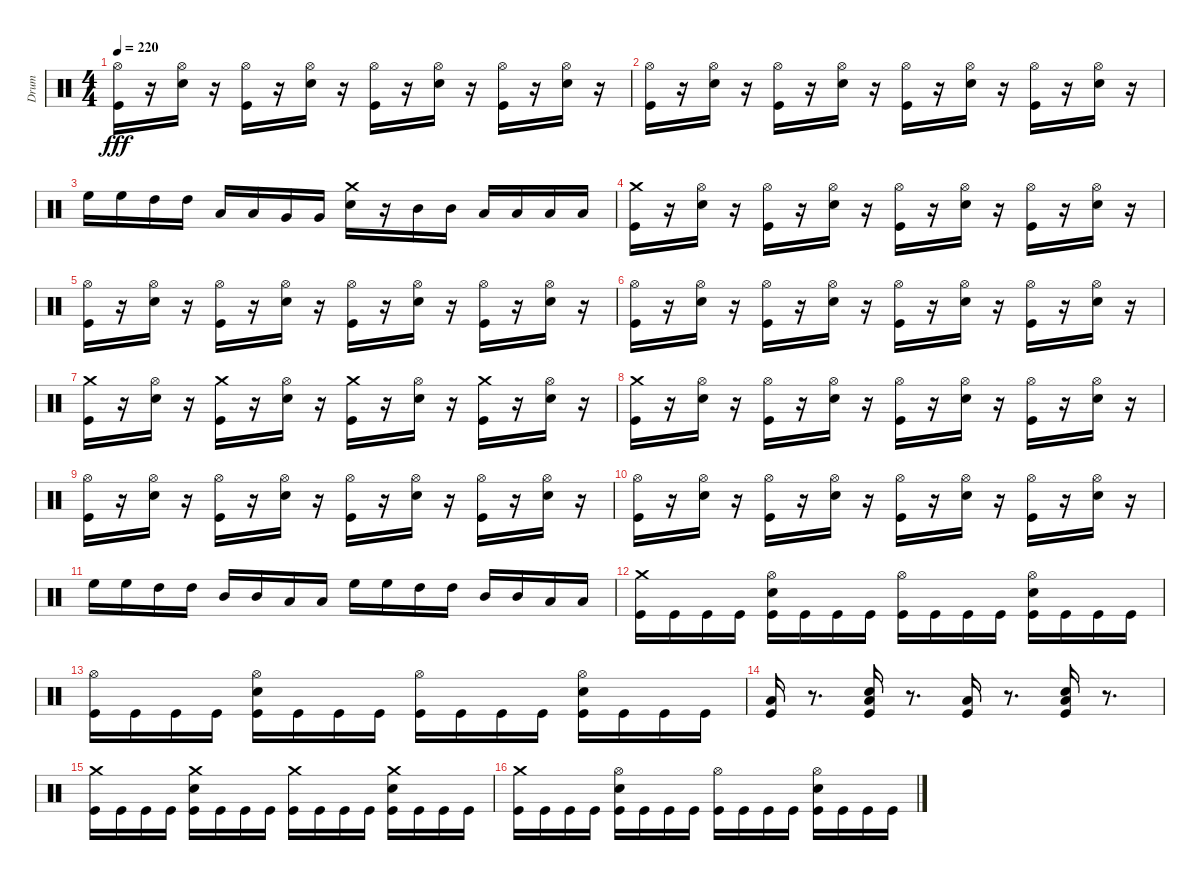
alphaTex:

\track ("Drum" "Drum") {instrument percussion}
\staff {score}
\articulation defaults
\ts (4 4)
\tempo 220
\clef neutral
\ks c
("Hi-Hat (open)" "Kick (hit)").16{dy fff} r.16 ("Hi-Hat (open)" "Snare (hit) 2").16 r.16 ("Kick (hit)" "Hi-Hat (open)").16 r.16 ("Snare (hit) 2" "Hi-Hat (open)").16 r.16 ("Hi-Hat (open)" "Kick (hit)").16 r.16 ("Hi-Hat (open)" "Snare (hit) 2").16 r.16 ("Kick (hit)" "Hi-Hat (open)").16 r.16 ("Snare (hit) 2" "Hi-Hat (open)").16 r.16 |
("Hi-Hat (open)" "Kick (hit)").16 r.16 ("Snare (hit) 2" "Hi-Hat (open)").16 r.16 ("Hi-Hat (open)" "Kick (hit)").16 r.16 ("Hi-Hat (open)" "Snare (hit) 2").16 r.16 ("Hi-Hat (open)" "Kick (hit)").16 r.16 ("Snare (hit) 2" "Hi-Hat (open)").16 r.16 ("Hi-Hat (open)" "Kick (hit)").16 r.16 ("Hi-Hat (open)" "Snare (hit) 2").16 r.16 |
"High Floor Tom (hit)".16 "High Floor Tom (hit)".16 "High Tom (hit)".16 "High Tom (hit)".16 "Low Tom (hit)".16 "Low Tom (hit)".16 "Very Low Tom (hit)".16 "Very Low Tom (hit)".16 ("Crash medium (hit)" "Snare (hit) 2").16 r.16 "Mid Tom (hit)".16 "Mid Tom (hit)".16 "Low Tom (hit)".16 "Low Tom (hit)".16 "Low Tom (hit)".16 "Low Floor Tom (hit)".16 |
("Crash medium (hit)" "Kick (hit)").16 r.16 ("Hi-Hat (open)" "Snare (hit) 2").16 r.16 ("Kick (hit)" "Hi-Hat (open)").16 r.16 ("Snare (hit) 2" "Hi-Hat (open)").16 r.16 ("Hi-Hat (open)" "Kick (hit)").16 r.16 ("Hi-Hat (open)" "Snare (hit) 2").16 r.16 ("Kick (hit)" "Hi-Hat (open)").16 r.16 ("Hi-Hat (open)" "Snare (hit) 2").16 r.16 |
("Kick (hit)" "Hi-Hat (open)").16 r.16 ("Snare (hit) 2" "Hi-Hat (open)").16 r.16 ("Hi-Hat (open)" "Kick (hit)").16 r.16 ("Hi-Hat (open)" "Snare (hit) 2").16 r.16 ("Kick (hit)" "Hi-Hat (open)").16 r.16 ("Snare (hit) 2" "Hi-Hat (open)").16 r.16 ("Kick (hit)" "Hi-Hat (open)").16 r.16 ("Hi-Hat (open)" "Snare (hit) 2").16 r.16 |
("Hi-Hat (open)" "Kick (hit)").16 r.16 ("Snare (hit) 2" "Hi-Hat (open)").16 r.16 ("Kick (hit)" "Hi-Hat (open)").16 r.16 ("Hi-Hat (open)" "Snare (hit) 2").16 r.16 ("Kick (hit)" "Hi-Hat (open)").16 r.16 ("Hi-Hat (open)" "Snare (hit) 2").16 r.16 ("Hi-Hat (open)" "Kick (hit)").16 r.16 ("Snare (hit) 2" "Hi-Hat (open)").16 r.16 |
("Kick (hit)" "Crash medium (hit)").16 r.16 ("Snare (hit) 2" "Hi-Hat (open)").16 r.16 ("Crash medium (hit)" "Kick (hit)").16 r.16 ("Snare (hit) 2" "Hi-Hat (open)").16 r.16 ("Crash medium (hit)" "Kick (hit)").16 r.16 ("Hi-Hat (open)" "Snare (hit) 2").16 r.16 ("Kick (hit)" "Crash medium (hit)").16 r.16 ("Hi-Hat (open)" "Snare (hit) 2").16 r.16 |
("Crash medium (hit)" "Kick (hit)").16 r.16 ("Hi-Hat (open)" "Snare (hit) 2").16 r.16 ("Kick (hit)" "Hi-Hat (open)").16 r.16 ("Snare (hit) 2" "Hi-Hat (open)").16 r.16 ("Kick (hit)" "Hi-Hat (open)").16 r.16 ("Snare (hit) 2" "Hi-Hat (open)").16 r.16 ("Kick (hit)" "Hi-Hat (open)").16 r.16 ("Hi-Hat (open)" "Snare (hit) 2").16 r.16 |
("Kick (hit)" "Hi-Hat (open)").16 r.16 ("Hi-Hat (open)" "Snare (hit) 2").16 r.16 ("Kick (hit)" "Hi-Hat (open)").16 r.16 ("Snare (hit) 2" "Hi-Hat (open)").16 r.16 ("Hi-Hat (open)" "Kick (hit)").16 r.16 ("Snare (hit) 2" "Hi-Hat (open)").16 r.16 ("Kick (hit)" "Hi-Hat (open)").16 r.16 ("Snare (hit) 2" "Hi-Hat (open)").16 r.16 |
("Hi-Hat (open)" "Kick (hit)").16 r.16 ("Snare (hit) 2" "Hi-Hat (open)").16 r.16 ("Hi-Hat (open)" "Kick (hit)").16 r.16 ("Hi-Hat (open)" "Snare (hit) 2").16 r.16 ("Kick (hit)" "Hi-Hat (open)").16 r.16 ("Hi-Hat (open)" "Snare (hit) 2").16 r.16 ("Kick (hit)" "Hi-Hat (open)").16 r.16 ("Snare (hit) 2" "Hi-Hat (open)").16 r.16 |
"High Floor Tom (hit)".16 "High Floor Tom (hit)".16 "High Tom (hit)".16 "High Tom (hit)".16 "Mid Tom (hit)".16 "Mid Tom (hit)".16 "Low Tom (hit)".16 "Low Tom (hit)".16 "High Floor Tom (hit)".16 "High Floor Tom (hit)".16 "High Tom (hit)".16 "High Tom (hit)".16 "Mid Tom (hit)".16 "Mid Tom (hit)".16 "Low Tom (hit)".16 "Low Tom (hit)".16 |
("Kick (hit)" "Crash medium (hit)").16 "Kick (hit)".16 "Kick (hit)".16 "Kick (hit)".16 ("Kick (hit)" "Snare (hit) 2" "Hi-Hat (open)").16 "Kick (hit)".16 "Kick (hit)".16 "Kick (hit)".16 ("Kick (hit)" "Hi-Hat (open)").16 "Kick (hit)".16 "Kick (hit)".16 "Kick (hit)".16 ("Hi-Hat (open)" "Snare (hit) 2" "Kick (hit)").16 "Kick (hit)".16 "Kick (hit)".16 "Kick (hit)".16 |
("Hi-Hat (open)" "Kick (hit)").16 "Kick (hit)".16 "Kick (hit)".16 "Kick (hit)".16 ("Kick (hit)" "Snare (hit) 2" "Hi-Hat (open)").16 "Kick (hit)".16 "Kick (hit)".16 "Kick (hit)".16 ("Kick (hit)" "Hi-Hat (open)").16 "Kick (hit)".16 "Kick (hit)".16 "Kick (hit)".16 ("Kick (hit)" "Hi-Hat (open)" "Snare (hit) 2").16 "Kick (hit)".16 "Kick (hit)".16 "Kick (hit)".16 |
("Kick (hit)" "Low Tom (hit)").16 r.8{d} ("Kick (hit)" "Snare (hit) 2" "Low Tom (hit)").16 r.8{d} ("Low Tom (hit)" "Kick (hit)").16 r.8{d} ("Snare (hit) 2" "Kick (hit)" "Low Tom (hit)").16 r.8{d} |
("Crash medium (hit)" "Kick (hit)").16 "Kick (hit)".16 "Kick (hit)".16 "Kick (hit)".16 ("Crash medium (hit)" "Snare (hit) 2" "Kick (hit)").16 "Kick (hit)".16 "Kick (hit)".16 "Kick (hit)".16 ("Kick (hit)" "Crash medium (hit)").16 "Kick (hit)".16 "Kick (hit)".16 "Kick (hit)".16 ("Kick (hit)" "Crash medium (hit)" "Snare (hit) 2").16 "Kick (hit)".16 "Kick (hit)".16 "Kick (hit)".16 |
("Kick (hit)" "Crash medium (hit)").16 "Kick (hit)".16 "Kick (hit)".16 "Kick (hit)".16 ("Hi-Hat (open)" "Snare (hit) 2" "Kick (hit)").16 "Kick (hit)".16 "Kick (hit)".16 "Kick (hit)".16 ("Kick (hit)" "Hi-Hat (open)").16 "Kick (hit)".16 "Kick (hit)".16 "Kick (hit)".16 ("Snare (hit) 2" "Hi-Hat (open)" "Kick (hit)").16 "Kick (hit)".16 "Kick (hit)".16 "Kick (hit)".16
